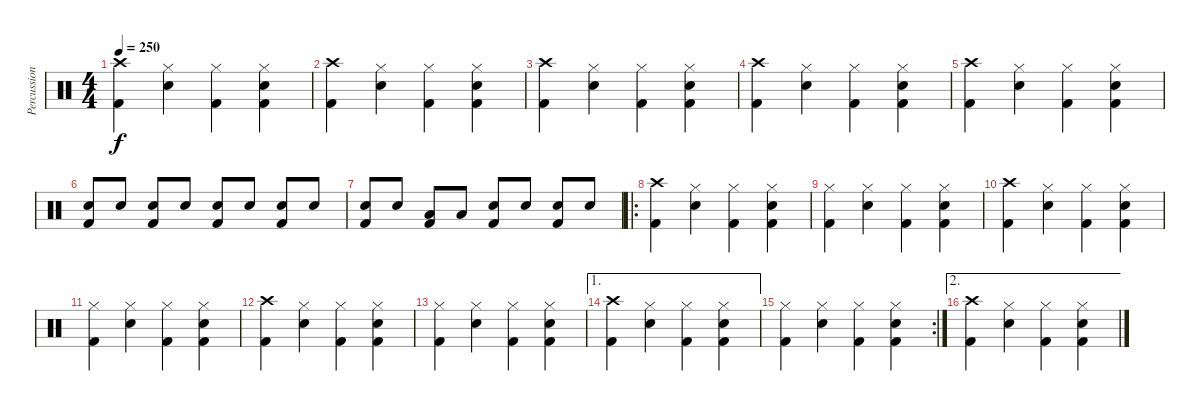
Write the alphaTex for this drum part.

\track ("Percussion" "Percussion") {instrument percussion}
\staff {score}
\articulation defaults
\ts (4 4)
\tempo 250
\clef neutral
\ks c
("Kick (hit) 2" "Crash high (hit)").4{dy f} ("Electric Snare (hit)" "Hi-Hat (closed)").4 ("Kick (hit) 2" "Hi-Hat (closed)").4 ("Electric Snare (hit)" "Kick (hit) 2" "Hi-Hat (closed)").4 |
("Kick (hit) 2" "Crash high (hit)").4 ("Electric Snare (hit)" "Hi-Hat (closed)").4 ("Kick (hit) 2" "Hi-Hat (closed)").4 ("Electric Snare (hit)" "Kick (hit) 2" "Hi-Hat (closed)").4 |
("Kick (hit) 2" "Crash high (hit)").4 ("Electric Snare (hit)" "Hi-Hat (closed)").4 ("Kick (hit) 2" "Hi-Hat (closed)").4 ("Electric Snare (hit)" "Kick (hit) 2" "Hi-Hat (closed)").4 |
("Kick (hit) 2" "Crash high (hit)").4 ("Electric Snare (hit)" "Hi-Hat (closed)").4 ("Kick (hit) 2" "Hi-Hat (closed)").4 ("Electric Snare (hit)" "Kick (hit) 2" "Hi-Hat (closed)").4 |
("Kick (hit) 2" "Crash high (hit)").4 ("Electric Snare (hit)" "Hi-Hat (closed)").4 ("Kick (hit) 2" "Hi-Hat (closed)").4 ("Electric Snare (hit)" "Kick (hit) 2" "Hi-Hat (closed)").4 |
("Kick (hit) 2" "Electric Snare (hit)").8 "Electric Snare (hit)".8 ("Kick (hit) 2" "Electric Snare (hit)").8 "Electric Snare (hit)".8 ("Kick (hit) 2" "Electric Snare (hit)").8 "Electric Snare (hit)".8 ("Kick (hit) 2" "Electric Snare (hit)").8 "Electric Snare (hit)".8 |
("Kick (hit) 2" "Electric Snare (hit)").8 "Electric Snare (hit)".8 ("Kick (hit) 2" "Low Tom (hit)").8 "Low Tom (hit)".8 ("Kick (hit) 2" "Electric Snare (hit)").8 "Electric Snare (hit)".8 ("Kick (hit) 2" "Electric Snare (hit)").8 "Electric Snare (hit)".8 |
\ro
("Kick (hit) 2" "Crash high (hit)").4 ("Electric Snare (hit)" "Hi-Hat (closed)").4 ("Kick (hit) 2" "Hi-Hat (closed)").4 ("Electric Snare (hit)" "Kick (hit) 2" "Hi-Hat (closed)").4 |
("Kick (hit) 2" "Hi-Hat (closed)").4 ("Electric Snare (hit)" "Hi-Hat (closed)").4 ("Kick (hit) 2" "Hi-Hat (closed)").4 ("Electric Snare (hit)" "Kick (hit) 2" "Hi-Hat (closed)").4 |
("Kick (hit) 2" "Crash high (hit)").4 ("Electric Snare (hit)" "Hi-Hat (closed)").4 ("Kick (hit) 2" "Hi-Hat (closed)").4 ("Electric Snare (hit)" "Kick (hit) 2" "Hi-Hat (closed)").4 |
("Kick (hit) 2" "Hi-Hat (closed)").4 ("Electric Snare (hit)" "Hi-Hat (closed)").4 ("Kick (hit) 2" "Hi-Hat (closed)").4 ("Electric Snare (hit)" "Kick (hit) 2" "Hi-Hat (closed)").4 |
("Kick (hit) 2" "Crash high (hit)").4 ("Electric Snare (hit)" "Hi-Hat (closed)").4 ("Kick (hit) 2" "Hi-Hat (closed)").4 ("Electric Snare (hit)" "Kick (hit) 2" "Hi-Hat (closed)").4 |
("Kick (hit) 2" "Hi-Hat (closed)").4 ("Electric Snare (hit)" "Hi-Hat (closed)").4 ("Kick (hit) 2" "Hi-Hat (closed)").4 ("Electric Snare (hit)" "Kick (hit) 2" "Hi-Hat (closed)").4 |
\ae 1
("Kick (hit) 2" "Crash high (hit)").4 ("Electric Snare (hit)" "Hi-Hat (closed)").4 ("Kick (hit) 2" "Hi-Hat (closed)").4 ("Electric Snare (hit)" "Kick (hit) 2" "Hi-Hat (closed)").4 |
\rc 2
("Kick (hit) 2" "Hi-Hat (closed)").4 ("Electric Snare (hit)" "Hi-Hat (closed)").4 ("Kick (hit) 2" "Hi-Hat (closed)").4 ("Electric Snare (hit)" "Kick (hit) 2" "Hi-Hat (closed)").4 |
\ae 2
("Kick (hit) 2" "Crash high (hit)").4 ("Electric Snare (hit)" "Hi-Hat (closed)").4 ("Kick (hit) 2" "Hi-Hat (closed)").4 ("Electric Snare (hit)" "Kick (hit) 2" "Hi-Hat (closed)").4
